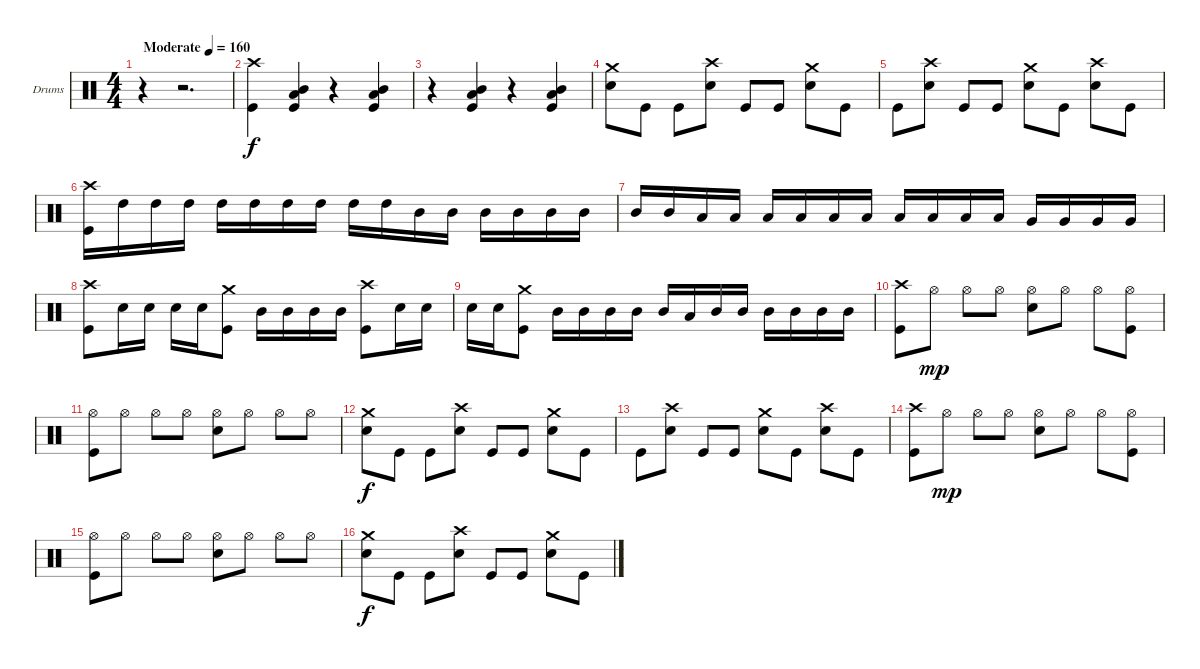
\bracketExtendMode groupsimilarinstruments
\firstSystemTrackNameOrientation horizontal
\otherSystemsTrackNameOrientation horizontal
\track ("Drumkit" "Drums") {instrument percussion}
\staff {score}
\articulation defaults
\ts (4 4)
\beaming (8 2 2 2 2)
\tempo (160 "Moderate")
\clef neutral
\ks c
r.4{dy f} r.2{d} |
("Crash high (hit)" "Kick (hit)").4 ("Mid Tom (hit)" "Low Tom (hit)" "Kick (hit)").4 r.4 ("Mid Tom (hit)" "Low Tom (hit)" "Kick (hit)").4 |
r.4 ("Mid Tom (hit)" "Low Tom (hit)" "Kick (hit)").4 r.4 ("Mid Tom (hit)" "Low Tom (hit)" "Kick (hit)").4 |
("Crash medium (hit)" "Snare (hit) 2").8 "Kick (hit)".8 "Kick (hit)".8 ("Crash high (hit)" "Snare (hit) 2").8 "Kick (hit)".8 "Kick (hit)".8 ("Crash medium (hit)" "Snare (hit) 2").8 "Kick (hit)".8 |
"Kick (hit)".8 ("Crash high (hit)" "Snare (hit) 2").8 "Kick (hit)".8 "Kick (hit)".8 ("Crash medium (hit)" "Snare (hit) 2").8 "Kick (hit)".8 ("Crash high (hit)" "Snare (hit) 2").8 "Kick (hit)".8 |
("Crash high (hit)" "Kick (hit)").16 "High Tom (hit)".16 "High Tom (hit)".16 "High Tom (hit)".16 "High Tom (hit)".16 "High Tom (hit)".16 "High Tom (hit)".16 "High Tom (hit)".16 "High Tom (hit)".16 "High Tom (hit)".16 "Mid Tom (hit)".16 "Mid Tom (hit)".16 "Mid Tom (hit)".16 "Mid Tom (hit)".16 "Mid Tom (hit)".16 "Mid Tom (hit)".16 |
"Mid Tom (hit)".16 "Mid Tom (hit)".16 "Low Tom (hit)".16 "Low Tom (hit)".16 "Low Tom (hit)".16 "Low Tom (hit)".16 "Low Tom (hit)".16 "Low Tom (hit)".16 "Low Tom (hit)".16 "Low Tom (hit)".16 "Low Tom (hit)".16 "Low Tom (hit)".16 "Very Low Tom (hit)".16 "Very Low Tom (hit)".16 "Very Low Tom (hit)".16 "Very Low Tom (hit)".16 |
("Crash high (hit)" "Kick (hit)").8 "Snare (hit) 2".16 "Snare (hit) 2".16 "Snare (hit) 2".16 "Snare (hit) 2".16 ("Crash medium (hit)" "Kick (hit)").8 "Mid Tom (hit)".16 "Mid Tom (hit)".16 "Mid Tom (hit)".16 "Mid Tom (hit)".16 ("Crash high (hit)" "Kick (hit)").8 "Snare (hit) 2".16 "Snare (hit) 2".16 |
"Snare (hit) 2".16 "Snare (hit) 2".16 ("Crash medium (hit)" "Kick (hit)").8 "Mid Tom (hit)".16 "Mid Tom (hit)".16 "Mid Tom (hit)".16 "Mid Tom (hit)".16 "Mid Tom (hit)".16 "Low Tom (hit)".16 "Mid Tom (hit)".16 "Mid Tom (hit)".16 "Mid Tom (hit)".16 "Mid Tom (hit)".16 "Mid Tom (hit)".16 "Mid Tom (hit)".16 |
("Crash high (hit)" "Kick (hit)").8 "Hi-Hat (open)".8{dy mp} "Hi-Hat (open)".8 "Hi-Hat (open)".8 ("Hi-Hat (open)" "Snare (hit) 2").8 "Hi-Hat (open)".8 "Hi-Hat (open)".8 ("Hi-Hat (open)" "Kick (hit)").8 |
("Hi-Hat (open)" "Kick (hit)").8 "Hi-Hat (open)".8 "Hi-Hat (open)".8 "Hi-Hat (open)".8 ("Hi-Hat (open)" "Snare (hit) 2").8 "Hi-Hat (open)".8 "Hi-Hat (open)".8 "Hi-Hat (open)".8 |
("Crash medium (hit)" "Snare (hit) 2").8{dy f} "Kick (hit)".8 "Kick (hit)".8 ("Crash high (hit)" "Snare (hit) 2").8 "Kick (hit)".8 "Kick (hit)".8 ("Crash medium (hit)" "Snare (hit) 2").8 "Kick (hit)".8 |
"Kick (hit)".8 ("Crash high (hit)" "Snare (hit) 2").8 "Kick (hit)".8 "Kick (hit)".8 ("Crash medium (hit)" "Snare (hit) 2").8 "Kick (hit)".8 ("Crash high (hit)" "Snare (hit) 2").8 "Kick (hit)".8 |
("Crash high (hit)" "Kick (hit)").8 "Hi-Hat (open)".8{dy mp} "Hi-Hat (open)".8 "Hi-Hat (open)".8 ("Hi-Hat (open)" "Snare (hit) 2").8 "Hi-Hat (open)".8 "Hi-Hat (open)".8 ("Hi-Hat (open)" "Kick (hit)").8 |
("Hi-Hat (open)" "Kick (hit)").8 "Hi-Hat (open)".8 "Hi-Hat (open)".8 "Hi-Hat (open)".8 ("Hi-Hat (open)" "Snare (hit) 2").8 "Hi-Hat (open)".8 "Hi-Hat (open)".8 "Hi-Hat (open)".8 |
("Crash medium (hit)" "Snare (hit) 2").8{dy f} "Kick (hit)".8 "Kick (hit)".8 ("Crash high (hit)" "Snare (hit) 2").8 "Kick (hit)".8 "Kick (hit)".8 ("Crash medium (hit)" "Snare (hit) 2").8 "Kick (hit)".8
